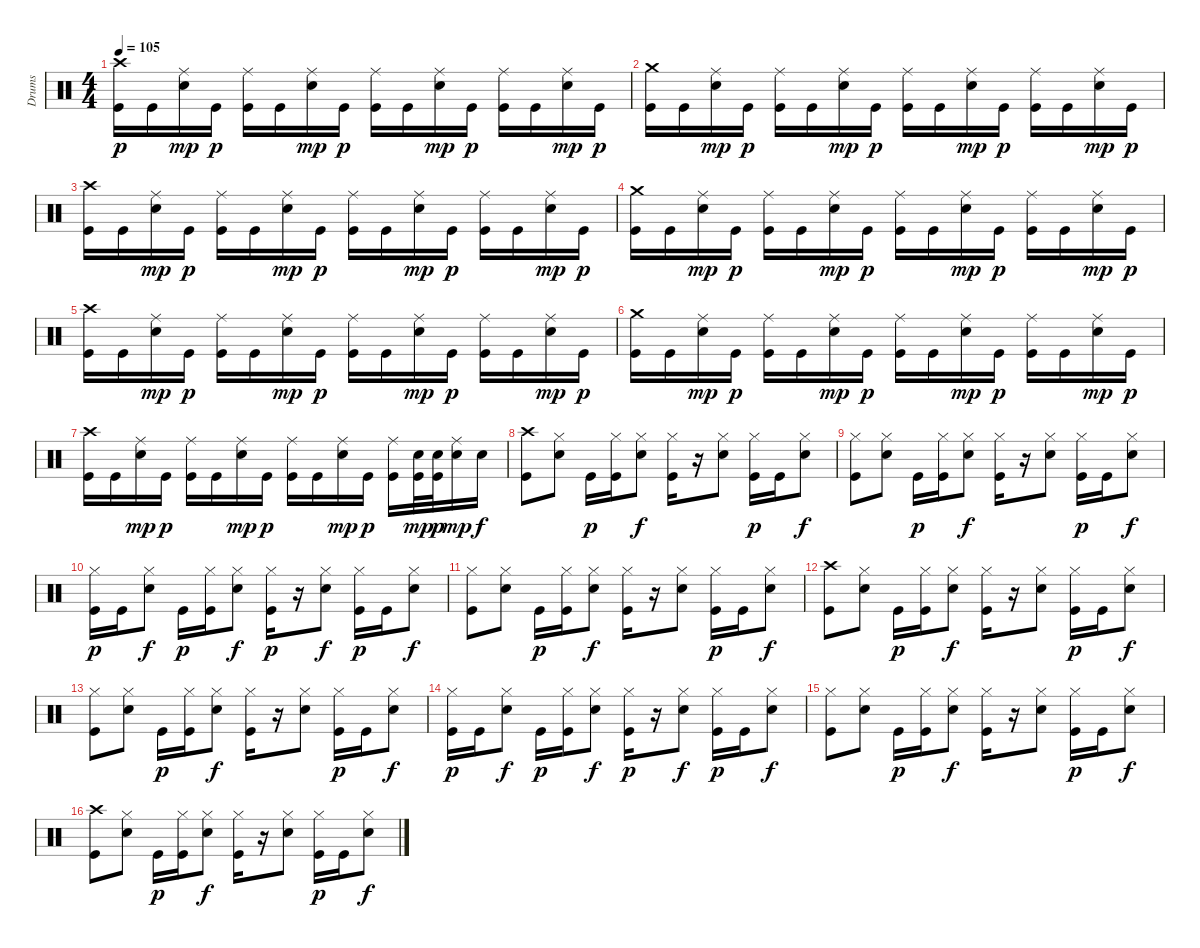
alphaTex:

\track ("Drums" "Drums") {instrument percussion}
\staff {score}
\articulation defaults
\ts (4 4)
\tempo 105
\clef neutral
\ks c
("Crash high (hit)" "Kick (hit)").16{dy p} "Kick (hit)".16 ("Ride (middle)" "Snare (hit) 2").16{dy mp} "Kick (hit)".16{dy p} ("Ride (middle)" "Kick (hit)").16 "Kick (hit)".16 ("Ride (middle)" "Snare (hit) 2").16{dy mp} "Kick (hit)".16{dy p} ("Ride (middle)" "Kick (hit)").16 "Kick (hit)".16 ("Ride (middle)" "Snare (hit) 2").16{dy mp} "Kick (hit)".16{dy p} ("Ride (middle)" "Kick (hit)").16 "Kick (hit)".16 ("Ride (middle)" "Snare (hit) 2").16{dy mp} "Kick (hit)".16{dy p} |
("Crash medium (hit)" "Kick (hit)").16 "Kick (hit)".16 ("Ride (middle)" "Snare (hit) 2").16{dy mp} "Kick (hit)".16{dy p} ("Ride (middle)" "Kick (hit)").16 "Kick (hit)".16 ("Ride (middle)" "Snare (hit) 2").16{dy mp} "Kick (hit)".16{dy p} ("Ride (middle)" "Kick (hit)").16 "Kick (hit)".16 ("Ride (middle)" "Snare (hit) 2").16{dy mp} "Kick (hit)".16{dy p} ("Ride (middle)" "Kick (hit)").16 "Kick (hit)".16 ("Ride (middle)" "Snare (hit) 2").16{dy mp} "Kick (hit)".16{dy p} |
("Crash high (hit)" "Kick (hit)").16 "Kick (hit)".16 ("Ride (middle)" "Snare (hit) 2").16{dy mp} "Kick (hit)".16{dy p} ("Ride (middle)" "Kick (hit)").16 "Kick (hit)".16 ("Ride (middle)" "Snare (hit) 2").16{dy mp} "Kick (hit)".16{dy p} ("Ride (middle)" "Kick (hit)").16 "Kick (hit)".16 ("Ride (middle)" "Snare (hit) 2").16{dy mp} "Kick (hit)".16{dy p} ("Ride (middle)" "Kick (hit)").16 "Kick (hit)".16 ("Ride (middle)" "Snare (hit) 2").16{dy mp} "Kick (hit)".16{dy p} |
("Crash medium (hit)" "Kick (hit)").16 "Kick (hit)".16 ("Ride (middle)" "Snare (hit) 2").16{dy mp} "Kick (hit)".16{dy p} ("Ride (middle)" "Kick (hit)").16 "Kick (hit)".16 ("Ride (middle)" "Snare (hit) 2").16{dy mp} "Kick (hit)".16{dy p} ("Ride (middle)" "Kick (hit)").16 "Kick (hit)".16 ("Ride (middle)" "Snare (hit) 2").16{dy mp} "Kick (hit)".16{dy p} ("Ride (middle)" "Kick (hit)").16 "Kick (hit)".16 ("Ride (middle)" "Snare (hit) 2").16{dy mp} "Kick (hit)".16{dy p} |
("Crash high (hit)" "Kick (hit)").16 "Kick (hit)".16 ("Ride (middle)" "Snare (hit) 2").16{dy mp} "Kick (hit)".16{dy p} ("Ride (middle)" "Kick (hit)").16 "Kick (hit)".16 ("Ride (middle)" "Snare (hit) 2").16{dy mp} "Kick (hit)".16{dy p} ("Ride (middle)" "Kick (hit)").16 "Kick (hit)".16 ("Ride (middle)" "Snare (hit) 2").16{dy mp} "Kick (hit)".16{dy p} ("Ride (middle)" "Kick (hit)").16 "Kick (hit)".16 ("Ride (middle)" "Snare (hit) 2").16{dy mp} "Kick (hit)".16{dy p} |
("Crash medium (hit)" "Kick (hit)").16 "Kick (hit)".16 ("Ride (middle)" "Snare (hit) 2").16{dy mp} "Kick (hit)".16{dy p} ("Ride (middle)" "Kick (hit)").16 "Kick (hit)".16 ("Ride (middle)" "Snare (hit) 2").16{dy mp} "Kick (hit)".16{dy p} ("Ride (middle)" "Kick (hit)").16 "Kick (hit)".16 ("Ride (middle)" "Snare (hit) 2").16{dy mp} "Kick (hit)".16{dy p} ("Ride (middle)" "Kick (hit)").16 "Kick (hit)".16 ("Ride (middle)" "Snare (hit) 2").16{dy mp} "Kick (hit)".16{dy p} |
("Crash high (hit)" "Kick (hit)").16 "Kick (hit)".16 ("Ride (middle)" "Snare (hit) 2").16{dy mp} "Kick (hit)".16{dy p} ("Ride (middle)" "Kick (hit)").16 "Kick (hit)".16 ("Ride (middle)" "Snare (hit) 2").16{dy mp} "Kick (hit)".16{dy p} ("Ride (middle)" "Kick (hit)").16 "Kick (hit)".16 ("Ride (middle)" "Snare (hit) 2").16{dy mp} "Kick (hit)".16{dy p} ("Ride (middle)" "Kick (hit)").16 ("Snare (hit) 2" "Kick (hit)").32{dy mp} ("Snare (hit) 2" "Kick (hit)").32{dy p} ("Ride (middle)" "Snare (hit) 2").16{dy mp} "Snare (hit) 2".16{dy f} |
("Crash high (hit)" "Kick (hit)").8 ("Hi-Hat (closed)" "Snare (hit) 2").8 "Kick (hit)".16{dy p} ("Hi-Hat (closed)" "Kick (hit)").16 ("Hi-Hat (closed)" "Snare (hit) 2").8{dy f} ("Hi-Hat (closed)" "Kick (hit)").16 r.16 ("Hi-Hat (closed)" "Snare (hit) 2").8 ("Hi-Hat (closed)" "Kick (hit)").16{dy p} "Kick (hit)".16 ("Hi-Hat (closed)" "Snare (hit) 2").8{dy f} |
("Hi-Hat (closed)" "Kick (hit)").8 ("Hi-Hat (closed)" "Snare (hit) 2").8 "Kick (hit)".16{dy p} ("Hi-Hat (closed)" "Kick (hit)").16 ("Hi-Hat (closed)" "Snare (hit) 2").8{dy f} ("Hi-Hat (closed)" "Kick (hit)").16 r.16 ("Hi-Hat (closed)" "Snare (hit) 2").8 ("Hi-Hat (closed)" "Kick (hit)").16{dy p} "Kick (hit)".16 ("Hi-Hat (closed)" "Snare (hit) 2").8{dy f} |
("Hi-Hat (closed)" "Kick (hit)").16{dy p} "Kick (hit)".16 ("Hi-Hat (closed)" "Snare (hit) 2").8{dy f} "Kick (hit)".16{dy p} ("Hi-Hat (closed)" "Kick (hit)").16 ("Hi-Hat (closed)" "Snare (hit) 2").8{dy f} ("Hi-Hat (closed)" "Kick (hit)").16{dy p} r.16 ("Hi-Hat (closed)" "Snare (hit) 2").8{dy f} ("Hi-Hat (closed)" "Kick (hit)").16{dy p} "Kick (hit)".16 ("Hi-Hat (closed)" "Snare (hit) 2").8{dy f} |
("Hi-Hat (closed)" "Kick (hit)").8 ("Hi-Hat (closed)" "Snare (hit) 2").8 "Kick (hit)".16{dy p} ("Hi-Hat (closed)" "Kick (hit)").16 ("Hi-Hat (closed)" "Snare (hit) 2").8{dy f} ("Hi-Hat (closed)" "Kick (hit)").16 r.16 ("Hi-Hat (closed)" "Snare (hit) 2").8 ("Hi-Hat (closed)" "Kick (hit)").16{dy p} "Kick (hit)".16 ("Hi-Hat (closed)" "Snare (hit) 2").8{dy f} |
("Crash high (hit)" "Kick (hit)").8 ("Hi-Hat (closed)" "Snare (hit) 2").8 "Kick (hit)".16{dy p} ("Hi-Hat (closed)" "Kick (hit)").16 ("Hi-Hat (closed)" "Snare (hit) 2").8{dy f} ("Hi-Hat (closed)" "Kick (hit)").16 r.16 ("Hi-Hat (closed)" "Snare (hit) 2").8 ("Hi-Hat (closed)" "Kick (hit)").16{dy p} "Kick (hit)".16 ("Hi-Hat (closed)" "Snare (hit) 2").8{dy f} |
("Hi-Hat (closed)" "Kick (hit)").8 ("Hi-Hat (closed)" "Snare (hit) 2").8 "Kick (hit)".16{dy p} ("Hi-Hat (closed)" "Kick (hit)").16 ("Hi-Hat (closed)" "Snare (hit) 2").8{dy f} ("Hi-Hat (closed)" "Kick (hit)").16 r.16 ("Hi-Hat (closed)" "Snare (hit) 2").8 ("Hi-Hat (closed)" "Kick (hit)").16{dy p} "Kick (hit)".16 ("Hi-Hat (closed)" "Snare (hit) 2").8{dy f} |
("Hi-Hat (closed)" "Kick (hit)").16{dy p} "Kick (hit)".16 ("Hi-Hat (closed)" "Snare (hit) 2").8{dy f} "Kick (hit)".16{dy p} ("Hi-Hat (closed)" "Kick (hit)").16 ("Hi-Hat (closed)" "Snare (hit) 2").8{dy f} ("Hi-Hat (closed)" "Kick (hit)").16{dy p} r.16 ("Hi-Hat (closed)" "Snare (hit) 2").8{dy f} ("Hi-Hat (closed)" "Kick (hit)").16{dy p} "Kick (hit)".16 ("Hi-Hat (closed)" "Snare (hit) 2").8{dy f} |
("Hi-Hat (closed)" "Kick (hit)").8 ("Hi-Hat (closed)" "Snare (hit) 2").8 "Kick (hit)".16{dy p} ("Hi-Hat (closed)" "Kick (hit)").16 ("Hi-Hat (closed)" "Snare (hit) 2").8{dy f} ("Hi-Hat (closed)" "Kick (hit)").16 r.16 ("Hi-Hat (closed)" "Snare (hit) 2").8 ("Hi-Hat (closed)" "Kick (hit)").16{dy p} "Kick (hit)".16 ("Hi-Hat (closed)" "Snare (hit) 2").8{dy f} |
("Crash high (hit)" "Kick (hit)").8 ("Hi-Hat (closed)" "Snare (hit) 2").8 "Kick (hit)".16{dy p} ("Hi-Hat (closed)" "Kick (hit)").16 ("Hi-Hat (closed)" "Snare (hit) 2").8{dy f} ("Hi-Hat (closed)" "Kick (hit)").16 r.16 ("Hi-Hat (closed)" "Snare (hit) 2").8 ("Hi-Hat (closed)" "Kick (hit)").16{dy p} "Kick (hit)".16 ("Hi-Hat (closed)" "Snare (hit) 2").8{dy f}
